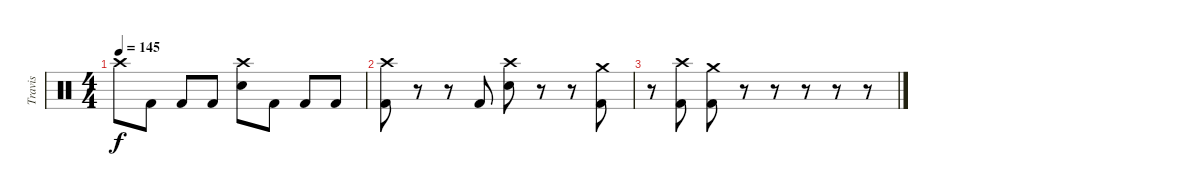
\track ("Travis" "Travis") {instrument percussion}
\staff {score}
\articulation defaults
\ts (4 4)
\tempo 145
\clef neutral
\ks c "Crash high (hit)".8{dy f} "Kick (hit) 2".8 "Kick (hit) 2".8 "Kick (hit) 2".8
("Crash high (hit)" "Electric Snare (hit)").8 "Kick (hit) 2".8 "Kick (hit) 2".8 "Kick (hit) 2".8 |
("Crash high (hit)" "Kick (hit) 2").8 r.8 r.8 "Kick (hit) 2".8 ("Crash high (hit)" "Electric Snare (hit)").8 r.8 r.8 ("Crash medium (hit)" "Kick (hit) 2").8 |
r.8 ("Crash high (hit)" "Kick (hit) 2").8 ("Crash medium (hit)" "Kick (hit) 2").8 r.8 r.8 r.8 r.8 r.8
